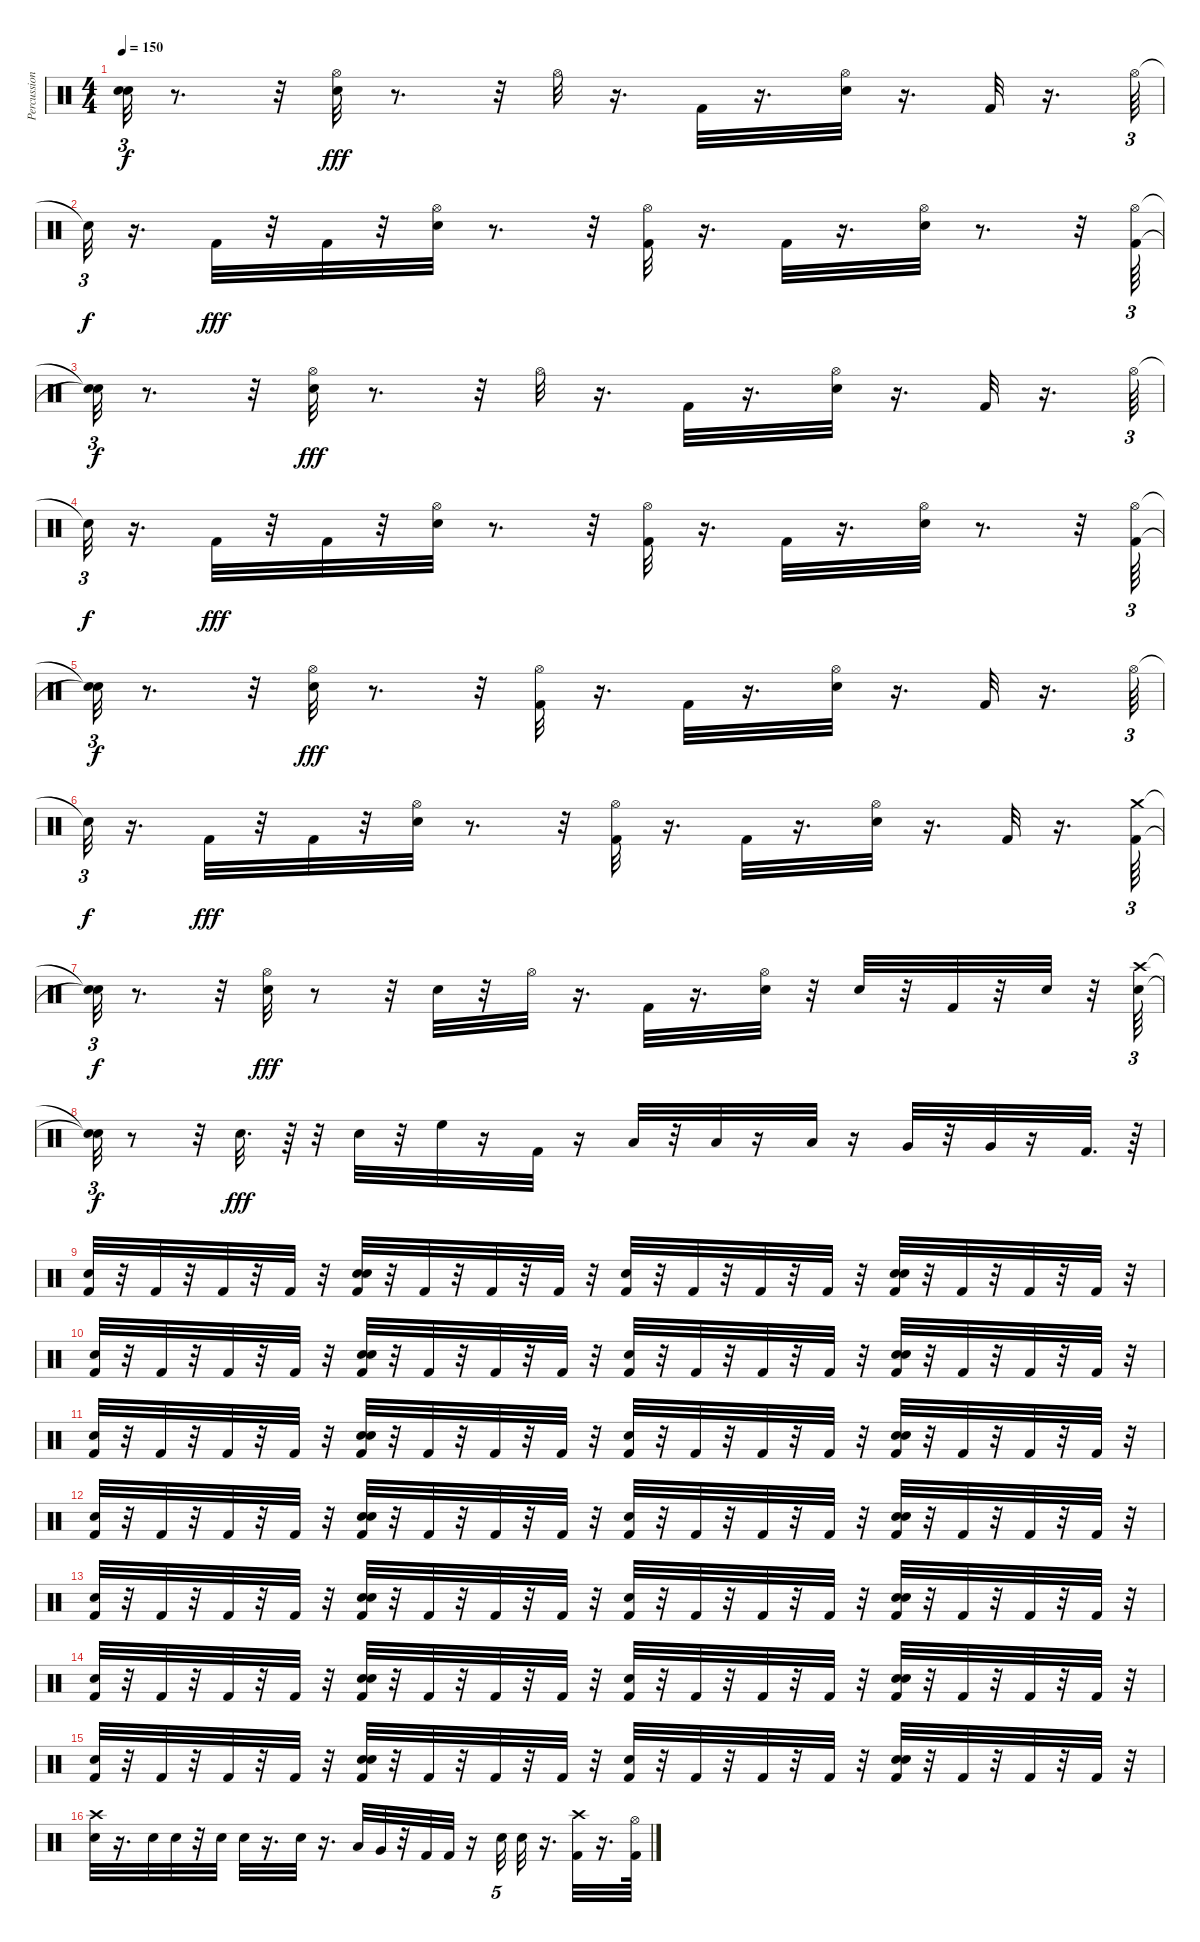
\track ("Percussion" "Percussion") {instrument percussion}
\staff {score}
\articulation defaults
\ts (4 4)
\tempo 150
\clef neutral
\ks c
("Snare (hit)"{t} "Snare (hit)"{t}).32{tu (3 2) dy f} r.8{d} r.32 ("Snare (hit) 2" "Hi-Hat (open)").32{dy fff} r.8{d} r.32 "Hi-Hat (open)".32 r.16{d} "Kick (hit) 2".32 r.16{d} ("Snare (hit) 2" "Hi-Hat (open)").32 r.16{d} "Kick (hit) 2".32 r.16{d} "Hi-Hat (open)".64{tu (3 2)} |
"Snare (hit)"{t}.32{tu (3 2) dy f} r.16{d} "Kick (hit) 2".32{dy fff} r.32 "Kick (hit) 2".32 r.32 ("Snare (hit) 2" "Hi-Hat (open)").32 r.8{d} r.32 ("Hi-Hat (open)" "Kick (hit) 2").32 r.16{d} "Kick (hit) 2".32 r.16{d} ("Snare (hit) 2" "Hi-Hat (open)").32 r.8{d} r.32 ("Hi-Hat (open)" "Kick (hit) 2").64{tu (3 2)} |
("Snare (hit)"{t} "Snare (hit)"{t}).32{tu (3 2) dy f} r.8{d} r.32 ("Snare (hit) 2" "Hi-Hat (open)").32{dy fff} r.8{d} r.32 "Hi-Hat (open)".32 r.16{d} "Kick (hit) 2".32 r.16{d} ("Hi-Hat (open)" "Snare (hit) 2").32 r.16{d} "Kick (hit) 2".32 r.16{d} "Hi-Hat (open)".64{tu (3 2)} |
"Snare (hit)"{t}.32{tu (3 2) dy f} r.16{d} "Kick (hit) 2".32{dy fff} r.32 "Kick (hit) 2".32 r.32 ("Snare (hit) 2" "Hi-Hat (open)").32 r.8{d} r.32 ("Hi-Hat (open)" "Kick (hit) 2").32 r.16{d} "Kick (hit) 2".32 r.16{d} ("Snare (hit) 2" "Hi-Hat (open)").32 r.8{d} r.32 ("Hi-Hat (open)" "Kick (hit) 2").64{tu (3 2)} |
("Snare (hit)"{t} "Snare (hit)"{t}).32{tu (3 2) dy f} r.8{d} r.32 ("Hi-Hat (open)" "Snare (hit) 2").32{dy fff} r.8{d} r.32 ("Hi-Hat (open)" "Kick (hit) 2").32 r.16{d} "Kick (hit) 2".32 r.16{d} ("Snare (hit) 2" "Hi-Hat (open)").32 r.16{d} "Kick (hit) 2".32 r.16{d} "Hi-Hat (open)".64{tu (3 2)} |
"Snare (hit)"{t}.32{tu (3 2) dy f} r.16{d} "Kick (hit) 2".32{dy fff} r.32 "Kick (hit) 2".32 r.32 ("Snare (hit) 2" "Hi-Hat (open)").32 r.8{d} r.32 ("Hi-Hat (open)" "Kick (hit) 2").32 r.16{d} "Kick (hit) 2".32 r.16{d} ("Hi-Hat (open)" "Snare (hit) 2").32 r.16{d} "Kick (hit) 2".32 r.16{d} ("Crash medium (hit)" "Kick (hit) 2").64{tu (3 2)} |
("Snare (hit)"{t} "Snare (hit)"{t}).32{tu (3 2) dy f} r.8{d} r.32 ("Electric Snare (hit)" "Hi-Hat (open)").32{dy fff} r.8 r.32 "Electric Snare (hit)".32 r.32 "Hi-Hat (open)".32 r.16{d} "Kick (hit) 2".32 r.16{d} ("Electric Snare (hit)" "Hi-Hat (open)").32 r.32 "Snare (hit) 2".32 r.32 "Kick (hit) 2".32 r.32 "Snare (hit) 2".32 r.32 ("Electric Snare (hit)" "Crash high (hit)").64{tu (3 2)} |
("Snare (hit)"{t} "Snare (hit)"{t}).32{tu (3 2) dy f} r.8 r.32 "Snare (hit) 2".32{d dy fff} r.64 r.32 "Electric Snare (hit)".32 r.32 "High Floor Tom (hit)".32 r.16 "Kick (hit) 2".32 r.16 "Low Tom (hit)".32 r.32 "Low Tom (hit)".32 r.16 "Low Tom (hit)".32 r.16 "Very Low Tom (hit)".32 r.32 "Very Low Tom (hit)".32 r.16 "Kick (hit) 2".32{d} r.64 |
("Kick (hit) 2" "Snare (hit)").32 r.32 "Kick (hit) 2".32 r.32 "Kick (hit) 2".32 r.32 "Kick (hit) 2".32 r.32 ("Snare (hit)" "Kick (hit) 2" "Snare (hit) 2").32 r.32 "Kick (hit) 2".32 r.32 "Kick (hit) 2".32 r.32 "Kick (hit) 2".32 r.32 ("Kick (hit) 2" "Snare (hit)").32 r.32 "Kick (hit) 2".32 r.32 "Kick (hit) 2".32 r.32 "Kick (hit) 2".32 r.32 ("Snare (hit)" "Kick (hit) 2" "Snare (hit) 2").32 r.32 "Kick (hit) 2".32 r.32 "Kick (hit) 2".32 r.32 "Kick (hit) 2".32 r.32 |
("Kick (hit) 2" "Snare (hit)").32 r.32 "Kick (hit) 2".32 r.32 "Kick (hit) 2".32 r.32 "Kick (hit) 2".32 r.32 ("Snare (hit)" "Kick (hit) 2" "Snare (hit) 2").32 r.32 "Kick (hit) 2".32 r.32 "Kick (hit) 2".32 r.32 "Kick (hit) 2".32 r.32 ("Kick (hit) 2" "Snare (hit)").32 r.32 "Kick (hit) 2".32 r.32 "Kick (hit) 2".32 r.32 "Kick (hit) 2".32 r.32 ("Snare (hit) 2" "Snare (hit)" "Kick (hit) 2").32 r.32 "Kick (hit) 2".32 r.32 "Kick (hit) 2".32 r.32 "Kick (hit) 2".32 r.32 |
("Kick (hit) 2" "Snare (hit)").32 r.32 "Kick (hit) 2".32 r.32 "Kick (hit) 2".32 r.32 "Kick (hit) 2".32 r.32 ("Snare (hit)" "Snare (hit) 2" "Kick (hit) 2").32 r.32 "Kick (hit) 2".32 r.32 "Kick (hit) 2".32 r.32 "Kick (hit) 2".32 r.32 ("Kick (hit) 2" "Snare (hit)").32 r.32 "Kick (hit) 2".32 r.32 "Kick (hit) 2".32 r.32 "Kick (hit) 2".32 r.32 ("Snare (hit) 2" "Snare (hit)" "Kick (hit) 2").32 r.32 "Kick (hit) 2".32 r.32 "Kick (hit) 2".32 r.32 "Kick (hit) 2".32 r.32 |
("Kick (hit) 2" "Snare (hit)").32 r.32 "Kick (hit) 2".32 r.32 "Kick (hit) 2".32 r.32 "Kick (hit) 2".32 r.32 ("Snare (hit)" "Kick (hit) 2" "Snare (hit) 2").32 r.32 "Kick (hit) 2".32 r.32 "Kick (hit) 2".32 r.32 "Kick (hit) 2".32 r.32 ("Kick (hit) 2" "Snare (hit)").32 r.32 "Kick (hit) 2".32 r.32 "Kick (hit) 2".32 r.32 "Kick (hit) 2".32 r.32 ("Snare (hit)" "Snare (hit) 2" "Kick (hit) 2").32 r.32 "Kick (hit) 2".32 r.32 "Kick (hit) 2".32 r.32 "Kick (hit) 2".32 r.32 |
("Kick (hit) 2" "Snare (hit)").32 r.32 "Kick (hit) 2".32 r.32 "Kick (hit) 2".32 r.32 "Kick (hit) 2".32 r.32 ("Snare (hit)" "Kick (hit) 2" "Snare (hit) 2").32 r.32 "Kick (hit) 2".32 r.32 "Kick (hit) 2".32 r.32 "Kick (hit) 2".32 r.32 ("Kick (hit) 2" "Snare (hit)").32 r.32 "Kick (hit) 2".32 r.32 "Kick (hit) 2".32 r.32 "Kick (hit) 2".32 r.32 ("Snare (hit)" "Kick (hit) 2" "Snare (hit) 2").32 r.32 "Kick (hit) 2".32 r.32 "Kick (hit) 2".32 r.32 "Kick (hit) 2".32 r.32 |
("Kick (hit) 2" "Snare (hit)").32 r.32 "Kick (hit) 2".32 r.32 "Kick (hit) 2".32 r.32 "Kick (hit) 2".32 r.32 ("Snare (hit)" "Kick (hit) 2" "Snare (hit) 2").32 r.32 "Kick (hit) 2".32 r.32 "Kick (hit) 2".32 r.32 "Kick (hit) 2".32 r.32 ("Kick (hit) 2" "Snare (hit)").32 r.32 "Kick (hit) 2".32 r.32 "Kick (hit) 2".32 r.32 "Kick (hit) 2".32 r.32 ("Snare (hit) 2" "Snare (hit)" "Kick (hit) 2").32 r.32 "Kick (hit) 2".32 r.32 "Kick (hit) 2".32 r.32 "Kick (hit) 2".32 r.32 |
("Kick (hit) 2" "Snare (hit)").32 r.32 "Kick (hit) 2".32 r.32 "Kick (hit) 2".32 r.32 "Kick (hit) 2".32 r.32 ("Snare (hit)" "Snare (hit) 2" "Kick (hit) 2").32 r.32 "Kick (hit) 2".32 r.32 "Kick (hit) 2".32 r.32 "Kick (hit) 2".32 r.32 ("Kick (hit) 2" "Snare (hit)").32 r.32 "Kick (hit) 2".32 r.32 "Kick (hit) 2".32 r.32 "Kick (hit) 2".32 r.32 ("Snare (hit) 2" "Snare (hit)" "Kick (hit) 2").32 r.32 "Kick (hit) 2".32 r.32 "Kick (hit) 2".32 r.32 "Kick (hit) 2".32 r.32 |
("Crash high (hit)" "Snare (hit) 2").32 r.16{d} "Snare (hit) 2".32 "Snare (hit) 2".32 r.32 "Snare (hit) 2".32 "Snare (hit) 2".32 r.16{d} "Electric Snare (hit)".32 r.16{d} "Low Tom (hit)".32 "Very Low Tom (hit)".32 r.32 "Kick (hit) 2".32 "Kick (hit) 2".32 r.16 "Snare (hit) 2".32{tu (5 4)} "Electric Snare (hit)".32 r.16{d} ("Crash high (hit)" "Kick (hit) 2").32 r.16{d} ("Hi-Hat (open)" "Kick (hit) 2").64
